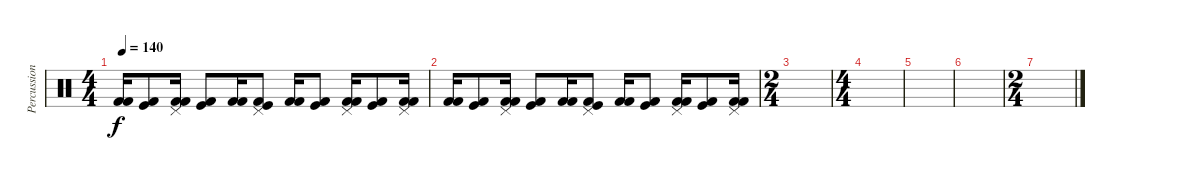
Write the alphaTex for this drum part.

\track ("Percussion" "Percussion") {instrument percussion}
\staff {score}
\articulation defaults
\ts (4 4)
\tempo 140
\clef neutral
\ks c
("Kick (hit) 2" "Kick (hit) 2").16{dy f} ("Kick (hit) 2" "Kick (hit)").8 ("Kick (hit) 2" "Kick (hit) 2" "Pedal Hi-Hat (hit)").16 ("Kick (hit) 2" "Kick (hit)").8 ("Kick (hit) 2" "Kick (hit) 2").16 ("Kick (hit) 2" "Kick (hit)" "Pedal Hi-Hat (hit)").8 ("Kick (hit) 2" "Kick (hit) 2").16 ("Kick (hit) 2" "Kick (hit)").8 ("Kick (hit) 2" "Kick (hit) 2" "Pedal Hi-Hat (hit)").16 ("Kick (hit) 2" "Kick (hit)").8 ("Kick (hit) 2" "Kick (hit) 2" "Pedal Hi-Hat (hit)").16 |
("Kick (hit) 2" "Kick (hit) 2").16 ("Kick (hit) 2" "Kick (hit)").8 ("Kick (hit) 2" "Kick (hit) 2" "Pedal Hi-Hat (hit)").16 ("Kick (hit) 2" "Kick (hit)").8 ("Kick (hit) 2" "Kick (hit) 2").16 ("Kick (hit) 2" "Kick (hit)" "Pedal Hi-Hat (hit)").8 ("Kick (hit) 2" "Kick (hit) 2").16 ("Kick (hit) 2" "Kick (hit)").8 ("Kick (hit) 2" "Kick (hit) 2" "Pedal Hi-Hat (hit)").16 ("Kick (hit) 2" "Kick (hit)").8 ("Kick (hit) 2" "Kick (hit) 2" "Pedal Hi-Hat (hit)").16 |
\ts (2 4)
|
\ts (4 4)
|
|
|
\ts (2 4)
